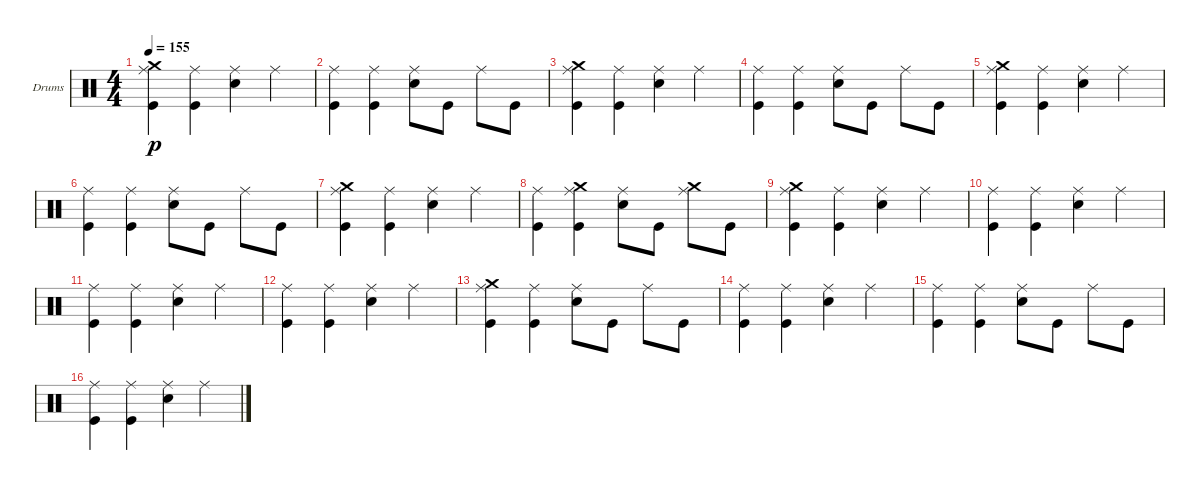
\defaultSystemsLayout 4
\bracketExtendMode groupsimilarinstruments
\firstSystemTrackNameOrientation horizontal
\otherSystemsTrackNameOrientation horizontal
\track ("Drumkit" "Drums") {instrument percussion}
\staff {score}
\articulation defaults
\ts (4 4)
\tempo 155
\clef neutral
\scale
0.333333
\ks c
("Crash medium (hit)" "Ride (middle)" "Kick (hit)").4{dy p} ("Ride (middle)" "Kick (hit)").4 ("Ride (middle)" "Snare (hit) 2").4 "Ride (middle)".4 |
\scale
0.333333 ("Ride (middle)" "Kick (hit)").4 ("Ride (middle)" "Kick (hit)").4 ("Ride (middle)" "Snare (hit) 2").8 "Kick (hit)".8 "Ride (middle)".8 "Kick (hit)".8 |
\scale
0.333333 ("Crash medium (hit)" "Ride (middle)" "Kick (hit)").4 ("Ride (middle)" "Kick (hit)").4 ("Ride (middle)" "Snare (hit) 2").4 "Ride (middle)".4 |
\scale
0.333333 ("Ride (middle)" "Kick (hit)").4 ("Ride (middle)" "Kick (hit)").4 ("Ride (middle)" "Snare (hit) 2").8 "Kick (hit)".8 "Ride (middle)".8 "Kick (hit)".8 |
\scale
0.333333 ("Crash medium (hit)" "Ride (middle)" "Kick (hit)").4 ("Ride (middle)" "Kick (hit)").4 ("Ride (middle)" "Snare (hit) 2").4 "Ride (middle)".4 |
\scale
0.333333 ("Ride (middle)" "Kick (hit)").4 ("Ride (middle)" "Kick (hit)").4 ("Ride (middle)" "Snare (hit) 2").8 "Kick (hit)".8 "Ride (middle)".8 "Kick (hit)".8 |
\scale
0.333333 ("Crash medium (hit)" "Ride (middle)" "Kick (hit)").4 ("Ride (middle)" "Kick (hit)").4 ("Ride (middle)" "Snare (hit) 2").4 "Ride (middle)".4 |
\scale
0.333333 ("Ride (middle)" "Kick (hit)").4 ("Ride (middle)" "Kick (hit)" "Crash medium (hit)").4 ("Ride (middle)" "Snare (hit) 2").8 "Kick (hit)".8 ("Ride (middle)" "Crash medium (hit)").8 "Kick (hit)".8 |
\scale
0.333333 ("Crash medium (hit)" "Ride (middle)" "Kick (hit)").4 ("Ride (middle)" "Kick (hit)").4 ("Ride (middle)" "Snare (hit) 2").4 "Ride (middle)".4 |
\scale
0.333333 ("Ride (middle)" "Kick (hit)").4 ("Ride (middle)" "Kick (hit)").4 ("Ride (middle)" "Snare (hit) 2").4 "Ride (middle)".4 |
\scale
0.333333 ("Ride (middle)" "Kick (hit)").4 ("Ride (middle)" "Kick (hit)").4 ("Ride (middle)" "Snare (hit) 2").4 "Ride (middle)".4 |
\scale
0.333333 ("Ride (middle)" "Kick (hit)").4 ("Ride (middle)" "Kick (hit)").4 ("Ride (middle)" "Snare (hit) 2").4 "Ride (middle)".4 |
\scale
0.333333 ("Crash medium (hit)" "Ride (middle)" "Kick (hit)").4 ("Ride (middle)" "Kick (hit)").4 ("Ride (middle)" "Snare (hit) 2").8 "Kick (hit)".8 "Ride (middle)".8 "Kick (hit)".8 |
\scale
0.333333 ("Ride (middle)" "Kick (hit)").4 ("Ride (middle)" "Kick (hit)").4 ("Ride (middle)" "Snare (hit) 2").4 "Ride (middle)".4 |
\scale
0.333333 ("Ride (middle)" "Kick (hit)").4 ("Ride (middle)" "Kick (hit)").4 ("Ride (middle)" "Snare (hit) 2").8 "Kick (hit)".8 "Ride (middle)".8 "Kick (hit)".8 |
\scale
0.333333 ("Ride (middle)" "Kick (hit)").4 ("Ride (middle)" "Kick (hit)").4 ("Ride (middle)" "Snare (hit) 2").4 "Ride (middle)".4
